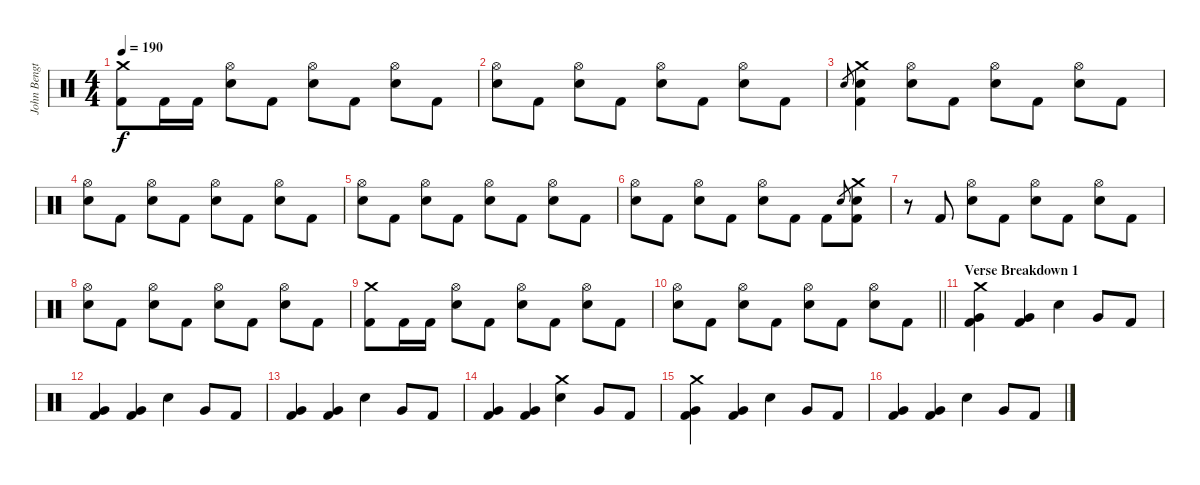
\track ("John Bengtsson" "John Bengt") {instrument percussion}
\staff {score}
\articulation defaults
\ts (4 4)
\tempo 190
\clef neutral
\ks c
("Crash medium (hit)" "Kick (hit) 2").8{dy f} "Kick (hit) 2".16 "Kick (hit) 2".16 ("Hi-Hat (open)" "Electric Snare (hit)").8 "Kick (hit) 2".8 ("Hi-Hat (open)" "Electric Snare (hit)").8 "Kick (hit) 2".8 ("Hi-Hat (open)" "Electric Snare (hit)").8 "Kick (hit) 2".8 |
("Hi-Hat (open)" "Electric Snare (hit)").8 "Kick (hit) 2".8 ("Hi-Hat (open)" "Electric Snare (hit)").8 "Kick (hit) 2".8 ("Hi-Hat (open)" "Electric Snare (hit)").8 "Kick (hit) 2".8 ("Hi-Hat (open)" "Electric Snare (hit)").8 "Kick (hit) 2".8 |
"Electric Snare (hit)".8{gr} ("Crash medium (hit)" "Electric Snare (hit)" "Kick (hit) 2").4 ("Hi-Hat (open)" "Electric Snare (hit)").8 "Kick (hit) 2".8 ("Hi-Hat (open)" "Electric Snare (hit)").8 "Kick (hit) 2".8 ("Hi-Hat (open)" "Electric Snare (hit)").8 "Kick (hit) 2".8 |
("Hi-Hat (open)" "Electric Snare (hit)").8 "Kick (hit) 2".8 ("Hi-Hat (open)" "Electric Snare (hit)").8 "Kick (hit) 2".8 ("Hi-Hat (open)" "Electric Snare (hit)").8 "Kick (hit) 2".8 ("Hi-Hat (open)" "Electric Snare (hit)").8 "Kick (hit) 2".8 |
("Hi-Hat (open)" "Electric Snare (hit)").8 "Kick (hit) 2".8 ("Hi-Hat (open)" "Electric Snare (hit)").8 "Kick (hit) 2".8 ("Hi-Hat (open)" "Electric Snare (hit)").8 "Kick (hit) 2".8 ("Hi-Hat (open)" "Electric Snare (hit)").8 "Kick (hit) 2".8 |
("Hi-Hat (open)" "Electric Snare (hit)").8 "Kick (hit) 2".8 ("Hi-Hat (open)" "Electric Snare (hit)").8 "Kick (hit) 2".8 ("Hi-Hat (open)" "Electric Snare (hit)").8 "Kick (hit) 2".8 "Kick (hit) 2".8 "Electric Snare (hit)".8{gr} ("Crash medium (hit)" "Electric Snare (hit)" "Kick (hit) 2").8 |
r.8 "Kick (hit) 2".8 ("Hi-Hat (open)" "Electric Snare (hit)").8 "Kick (hit) 2".8 ("Hi-Hat (open)" "Electric Snare (hit)").8 "Kick (hit) 2".8 ("Hi-Hat (open)" "Electric Snare (hit)").8 "Kick (hit) 2".8 |
("Hi-Hat (open)" "Electric Snare (hit)").8 "Kick (hit) 2".8 ("Hi-Hat (open)" "Electric Snare (hit)").8 "Kick (hit) 2".8 ("Hi-Hat (open)" "Electric Snare (hit)").8 "Kick (hit) 2".8 ("Hi-Hat (open)" "Electric Snare (hit)").8 "Kick (hit) 2".8 |
("Crash medium (hit)" "Kick (hit) 2").8 "Kick (hit) 2".16 "Kick (hit) 2".16 ("Hi-Hat (open)" "Electric Snare (hit)").8 "Kick (hit) 2".8 ("Hi-Hat (open)" "Electric Snare (hit)").8 "Kick (hit) 2".8 ("Hi-Hat (open)" "Electric Snare (hit)").8 "Kick (hit) 2".8 |
\barLineRight lightlight
("Hi-Hat (open)" "Electric Snare (hit)").8 "Kick (hit) 2".8 ("Hi-Hat (open)" "Electric Snare (hit)").8 "Kick (hit) 2".8 ("Hi-Hat (open)" "Electric Snare (hit)").8 "Kick (hit) 2".8 ("Hi-Hat (open)" "Electric Snare (hit)").8 "Kick (hit) 2".8 |
\section ("" "Verse Breakdown 1")
("Crash medium (hit)" "Very Low Tom (hit)" "Kick (hit) 2").4 ("Very Low Tom (hit)" "Kick (hit) 2").4 "Electric Snare (hit)".4 "Very Low Tom (hit)".8 "Kick (hit) 2".8 |
("Very Low Tom (hit)" "Kick (hit) 2").4 ("Very Low Tom (hit)" "Kick (hit) 2").4 "Electric Snare (hit)".4 "Very Low Tom (hit)".8 "Kick (hit) 2".8 |
("Very Low Tom (hit)" "Kick (hit) 2").4 ("Very Low Tom (hit)" "Kick (hit) 2").4 "Electric Snare (hit)".4 "Very Low Tom (hit)".8 "Kick (hit) 2".8 |
("Very Low Tom (hit)" "Kick (hit) 2").4 ("Very Low Tom (hit)" "Kick (hit) 2").4 ("Crash medium (hit)" "Electric Snare (hit)").4 "Very Low Tom (hit)".8 "Kick (hit) 2".8 |
("Crash medium (hit)" "Very Low Tom (hit)" "Kick (hit) 2").4 ("Very Low Tom (hit)" "Kick (hit) 2").4 "Electric Snare (hit)".4 "Very Low Tom (hit)".8 "Kick (hit) 2".8 |
("Very Low Tom (hit)" "Kick (hit) 2").4 ("Very Low Tom (hit)" "Kick (hit) 2").4 "Electric Snare (hit)".4 "Very Low Tom (hit)".8 "Kick (hit) 2".8
